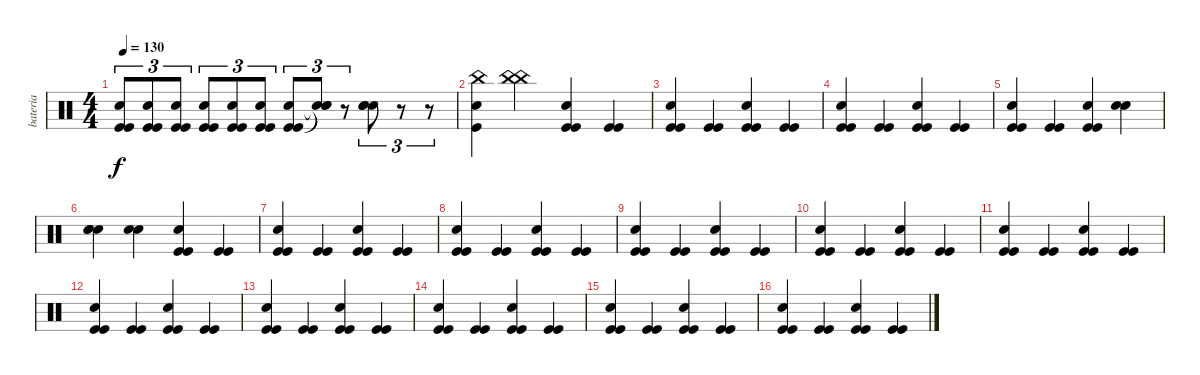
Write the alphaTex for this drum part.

\track ("bateria" "bateria") {instrument percussion}
\staff {score}
\articulation defaults
\ts (4 4)
\tempo 130
\clef neutral
\ks c
("Kick (hit)" "Snare (hit) 2" "Kick (hit)").8{tu (3 2) dy f} ("Kick (hit)" "Snare (hit) 2" "Kick (hit)").8{tu (3 2)} ("Kick (hit)" "Snare (hit) 2" "Kick (hit)").8{tu (3 2)} ("Kick (hit)" "Snare (hit) 2" "Kick (hit)").8{tu (3 2)} ("Kick (hit)" "Snare (hit) 2" "Kick (hit)").8{tu (3 2)} ("Kick (hit)" "Snare (hit) 2" "Kick (hit)").8{tu (3 2)} ("Kick (hit)" "Snare (hit) 2" "Kick (hit)").8{tu (3 2)} ("Snare (hit)"{t} "Snare (hit)"{t} "Snare (hit)"{t}).8{tu (3 2)} r.8{tu (3 2)} ("Snare (hit) 2" "Snare (hit) 2" "Snare (hit) 2").8{tu (3 2)} r.8{tu (3 2)} r.8{tu (3 2)} |
("China (hit)" "Snare (hit) 2" "Kick (hit)").4 ("China (hit)" "China (hit)").4 ("Kick (hit)" "Snare (hit) 2" "Kick (hit)").4 ("Kick (hit)" "Kick (hit)").4 |
("Kick (hit)" "Snare (hit) 2" "Kick (hit)").4 ("Kick (hit)" "Kick (hit)").4 ("Kick (hit)" "Snare (hit) 2" "Kick (hit)").4 ("Kick (hit)" "Kick (hit)").4 |
("Kick (hit)" "Snare (hit) 2" "Kick (hit)").4 ("Kick (hit)" "Kick (hit)").4 ("Kick (hit)" "Snare (hit) 2" "Kick (hit)").4 ("Kick (hit)" "Kick (hit)").4 |
("Kick (hit)" "Snare (hit) 2" "Kick (hit)").4 ("Kick (hit)" "Kick (hit)").4 ("Kick (hit)" "Snare (hit) 2" "Kick (hit)").4 ("Snare (hit) 2" "Snare (hit) 2").4 |
("Snare (hit) 2" "Snare (hit) 2" "Snare (hit) 2").4 ("Snare (hit) 2" "Snare (hit) 2").4 ("Kick (hit)" "Snare (hit) 2" "Kick (hit)").4 ("Kick (hit)" "Kick (hit)").4 |
("Kick (hit)" "Snare (hit) 2" "Kick (hit)").4 ("Kick (hit)" "Kick (hit)").4 ("Kick (hit)" "Snare (hit) 2" "Kick (hit)").4 ("Kick (hit)" "Kick (hit)").4 |
("Kick (hit)" "Snare (hit) 2" "Kick (hit)").4 ("Kick (hit)" "Kick (hit)").4 ("Kick (hit)" "Snare (hit) 2" "Kick (hit)").4 ("Kick (hit)" "Kick (hit)").4 |
("Kick (hit)" "Snare (hit) 2" "Kick (hit)").4 ("Kick (hit)" "Kick (hit)").4 ("Kick (hit)" "Snare (hit) 2" "Kick (hit)").4 ("Kick (hit)" "Kick (hit)").4 |
("Kick (hit)" "Snare (hit) 2" "Kick (hit)").4 ("Kick (hit)" "Kick (hit)").4 ("Kick (hit)" "Snare (hit) 2" "Kick (hit)").4 ("Kick (hit)" "Kick (hit)").4 |
("Kick (hit)" "Snare (hit) 2" "Kick (hit)").4 ("Kick (hit)" "Kick (hit)").4 ("Kick (hit)" "Snare (hit) 2" "Kick (hit)").4 ("Kick (hit)" "Kick (hit)").4 |
("Kick (hit)" "Snare (hit) 2" "Kick (hit)").4 ("Kick (hit)" "Kick (hit)").4 ("Kick (hit)" "Snare (hit) 2" "Kick (hit)").4 ("Kick (hit)" "Kick (hit)").4 |
("Kick (hit)" "Snare (hit) 2" "Kick (hit)").4 ("Kick (hit)" "Kick (hit)").4 ("Kick (hit)" "Snare (hit) 2" "Kick (hit)").4 ("Kick (hit)" "Kick (hit)").4 |
("Kick (hit)" "Snare (hit) 2" "Kick (hit)").4 ("Kick (hit)" "Kick (hit)").4 ("Kick (hit)" "Snare (hit) 2" "Kick (hit)").4 ("Kick (hit)" "Kick (hit)").4 |
("Kick (hit)" "Snare (hit) 2" "Kick (hit)").4 ("Kick (hit)" "Kick (hit)").4 ("Kick (hit)" "Snare (hit) 2" "Kick (hit)").4 ("Kick (hit)" "Kick (hit)").4 |
("Kick (hit)" "Snare (hit) 2" "Kick (hit)").4 ("Kick (hit)" "Kick (hit)").4 ("Kick (hit)" "Snare (hit) 2" "Kick (hit)").4 ("Kick (hit)" "Kick (hit)").4
